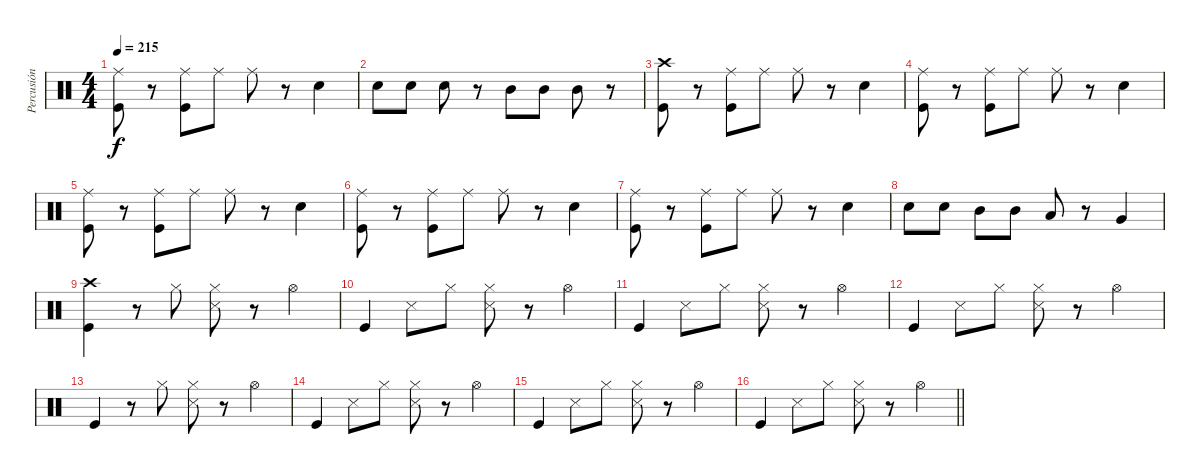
\track ("Percusión" "Percusión") {instrument percussion}
\staff {score}
\articulation defaults
\ts (4 4)
\tempo 215
\clef neutral
\ks c
("Ride (middle)" "Kick (hit)").8{dy f} r.8 ("Ride (middle)" "Kick (hit)").8 "Ride (middle)".8 "Ride (middle)".8 r.8 "Snare (hit) 2".4 |
"Snare (hit) 2".8 "Snare (hit) 2".8 "Snare (hit) 2".8 r.8 "Mid Tom (hit)".8 "Mid Tom (hit)".8 "Mid Tom (hit)".8 r.8 |
("Crash high (hit)" "Kick (hit)").8 r.8 ("Ride (middle)" "Kick (hit)").8 "Ride (middle)".8 "Ride (middle)".8 r.8 "Snare (hit) 2".4 |
("Ride (middle)" "Kick (hit)").8 r.8 ("Ride (middle)" "Kick (hit)").8 "Ride (middle)".8 "Ride (middle)".8 r.8 "Snare (hit) 2".4 |
("Ride (middle)" "Kick (hit)").8 r.8 ("Ride (middle)" "Kick (hit)").8 "Ride (middle)".8 "Ride (middle)".8 r.8 "Snare (hit) 2".4 |
("Ride (middle)" "Kick (hit)").8 r.8 ("Ride (middle)" "Kick (hit)").8 "Ride (middle)".8 "Ride (middle)".8 r.8 "Snare (hit) 2".4 |
("Ride (middle)" "Kick (hit)").8 r.8 ("Ride (middle)" "Kick (hit)").8 "Ride (middle)".8 "Ride (middle)".8 r.8 "Snare (hit) 2".4 |
"Snare (hit) 2".8 "Snare (hit) 2".8 "Mid Tom (hit)".8 "Mid Tom (hit)".8 "Low Tom (hit)".8 r.8 "Very Low Tom (hit)".4 |
("Crash high (hit)" "Kick (hit)").4 r.8 "Hi-Hat (closed)".8 ("Hi-Hat (closed)" "Snare (side stick) 3").8 r.8 "Hi-Hat (open)".4 |
"Kick (hit)".4 "Snare (side stick) 3".8 "Hi-Hat (closed)".8 ("Hi-Hat (closed)" "Snare (side stick) 3").8 r.8 "Hi-Hat (open)".4 |
"Kick (hit)".4 "Snare (side stick) 3".8 "Hi-Hat (closed)".8 ("Hi-Hat (closed)" "Snare (side stick) 3").8 r.8 "Hi-Hat (open)".4 |
"Kick (hit)".4 "Snare (side stick) 3".8 "Hi-Hat (closed)".8 ("Hi-Hat (closed)" "Snare (side stick) 3").8 r.8 "Hi-Hat (open)".4 |
"Kick (hit)".4 r.8 "Hi-Hat (closed)".8 ("Hi-Hat (closed)" "Snare (side stick) 3").8 r.8 "Hi-Hat (open)".4 |
"Kick (hit)".4 "Snare (side stick) 3".8 "Hi-Hat (closed)".8 ("Hi-Hat (closed)" "Snare (side stick) 3").8 r.8 "Hi-Hat (open)".4 |
"Kick (hit)".4 "Snare (side stick) 3".8 "Hi-Hat (closed)".8 ("Hi-Hat (closed)" "Snare (side stick) 3").8 r.8 "Hi-Hat (open)".4 |
\barLineRight lightlight "Kick (hit)".4 "Snare (side stick) 3".8 "Hi-Hat (closed)".8
("Hi-Hat (closed)" "Snare (side stick) 3").8 r.8 "Hi-Hat (open)".4
